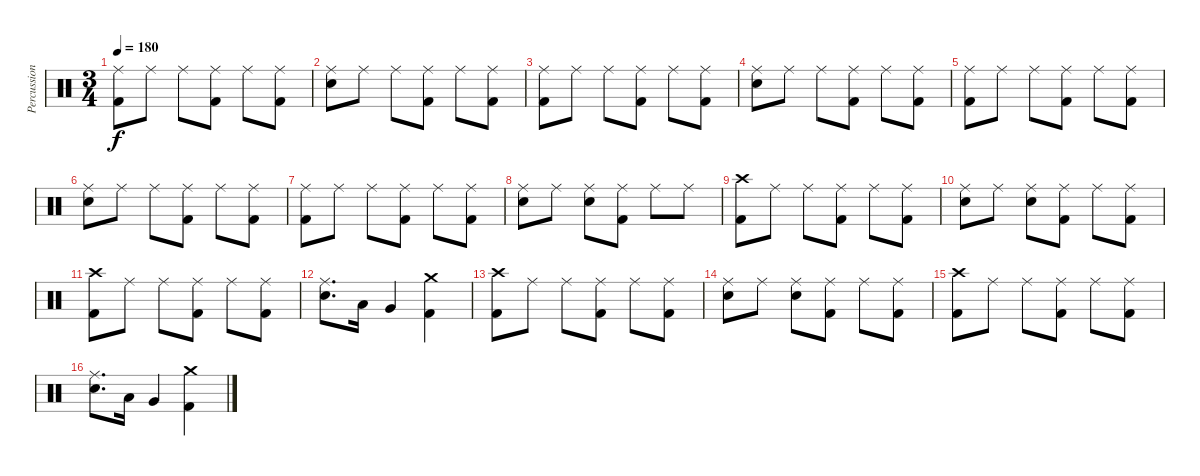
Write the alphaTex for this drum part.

\track ("Percussion" "Percussion") {instrument percussion}
\staff {score}
\articulation defaults
\ts (3 4)
\tempo 180
\clef neutral
\ks c
("Ride (middle)" "Kick (hit) 2").8{dy f} "Ride (middle)".8 "Ride (middle)".8 ("Ride (middle)" "Kick (hit) 2").8 "Ride (middle)".8 ("Ride (middle)" "Kick (hit) 2").8 |
("Ride (middle)" "Electric Snare (hit)").8 "Ride (middle)".8 "Ride (middle)".8 ("Ride (middle)" "Kick (hit) 2").8 "Ride (middle)".8 ("Ride (middle)" "Kick (hit) 2").8 |
("Ride (middle)" "Kick (hit) 2").8 "Ride (middle)".8 "Ride (middle)".8 ("Ride (middle)" "Kick (hit) 2").8 "Ride (middle)".8 ("Ride (middle)" "Kick (hit) 2").8 |
("Ride (middle)" "Electric Snare (hit)").8 "Ride (middle)".8 "Ride (middle)".8 ("Ride (middle)" "Kick (hit) 2").8 "Ride (middle)".8 ("Ride (middle)" "Kick (hit) 2").8 |
("Ride (middle)" "Kick (hit) 2").8 "Ride (middle)".8 "Ride (middle)".8 ("Ride (middle)" "Kick (hit) 2").8 "Ride (middle)".8 ("Ride (middle)" "Kick (hit) 2").8 |
("Ride (middle)" "Electric Snare (hit)").8 "Ride (middle)".8 "Ride (middle)".8 ("Ride (middle)" "Kick (hit) 2").8 "Ride (middle)".8 ("Ride (middle)" "Kick (hit) 2").8 |
("Ride (middle)" "Kick (hit) 2").8 "Ride (middle)".8 "Ride (middle)".8 ("Ride (middle)" "Kick (hit) 2").8 "Ride (middle)".8 ("Ride (middle)" "Kick (hit) 2").8 |
("Ride (middle)" "Electric Snare (hit)").8 "Ride (middle)".8 ("Ride (middle)" "Electric Snare (hit)").8 ("Ride (middle)" "Kick (hit) 2").8 "Ride (middle)".8 "Ride (middle)".8 |
("Crash high (hit)" "Kick (hit) 2").8 "Ride (middle)".8 "Ride (middle)".8 ("Ride (middle)" "Kick (hit) 2").8 "Ride (middle)".8 ("Ride (middle)" "Kick (hit) 2").8 |
("Ride (middle)" "Electric Snare (hit)").8 "Ride (middle)".8 ("Ride (middle)" "Electric Snare (hit)").8 ("Ride (middle)" "Kick (hit) 2").8 "Ride (middle)".8 ("Ride (middle)" "Kick (hit) 2").8 |
("Crash high (hit)" "Kick (hit) 2").8 "Ride (middle)".8 "Ride (middle)".8 ("Ride (middle)" "Kick (hit) 2").8 "Ride (middle)".8 ("Ride (middle)" "Kick (hit) 2").8 |
("Ride (middle)" "Electric Snare (hit)").8{d} "Low Tom (hit)".16 "Very Low Tom (hit)".4 ("Crash medium (hit)" "Kick (hit) 2").4 |
("Crash high (hit)" "Kick (hit) 2").8 "Ride (middle)".8 "Ride (middle)".8 ("Ride (middle)" "Kick (hit) 2").8 "Ride (middle)".8 ("Ride (middle)" "Kick (hit) 2").8 |
("Ride (middle)" "Electric Snare (hit)").8 "Ride (middle)".8 ("Ride (middle)" "Electric Snare (hit)").8 ("Ride (middle)" "Kick (hit) 2").8 "Ride (middle)".8 ("Ride (middle)" "Kick (hit) 2").8 |
("Crash high (hit)" "Kick (hit) 2").8 "Ride (middle)".8 "Ride (middle)".8 ("Ride (middle)" "Kick (hit) 2").8 "Ride (middle)".8 ("Ride (middle)" "Kick (hit) 2").8 |
("Ride (middle)" "Electric Snare (hit)").8{d} "Low Tom (hit)".16 "Very Low Tom (hit)".4 ("Crash medium (hit)" "Kick (hit) 2").4
